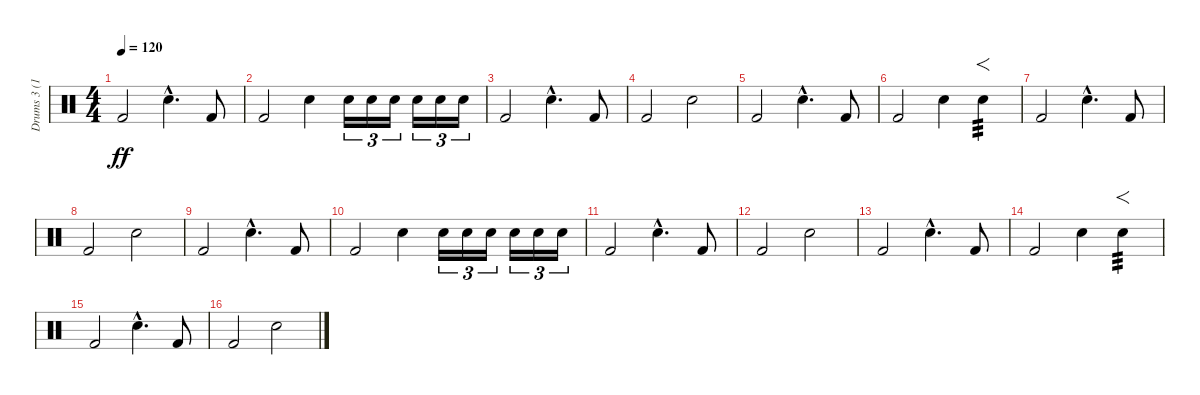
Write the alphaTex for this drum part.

\track ("Drums 3 (16)" "Drums 3 (1") {instrument percussion}
\staff {score}
\articulation defaults
\ts (4 4)
\tempo 120
\clef neutral
\ks c "Kick (hit) 2".2{dy ff} "Snare (hit) 2"{hac}.4{d} "Kick (hit) 2".8
|
"Kick (hit) 2".2 "Snare (hit) 2".4 "Snare (hit) 2".16{tu (3 2)} "Snare (hit) 2".16{tu (3 2)} "Snare (hit) 2".16{tu (3 2)} "Snare (hit) 2".16{tu (3 2)} "Snare (hit) 2".16{tu (3 2)} "Snare (hit) 2".16{tu (3 2)} |
"Kick (hit) 2".2 "Snare (hit) 2"{hac}.4{d} "Kick (hit) 2".8 |
"Kick (hit) 2".2 "Snare (hit) 2".2 |
"Kick (hit) 2".2 "Snare (hit) 2"{hac}.4{d} "Kick (hit) 2".8 |
"Kick (hit) 2".2 "Snare (hit) 2".4 "Snare (hit) 2".4{f tp 3} |
"Kick (hit) 2".2 "Snare (hit) 2"{hac}.4{d} "Kick (hit) 2".8 |
"Kick (hit) 2".2 "Snare (hit) 2".2 |
"Kick (hit) 2".2 "Snare (hit) 2"{hac}.4{d} "Kick (hit) 2".8 |
"Kick (hit) 2".2 "Snare (hit) 2".4 "Snare (hit) 2".16{tu (3 2)} "Snare (hit) 2".16{tu (3 2)} "Snare (hit) 2".16{tu (3 2)} "Snare (hit) 2".16{tu (3 2)} "Snare (hit) 2".16{tu (3 2)} "Snare (hit) 2".16{tu (3 2)} |
"Kick (hit) 2".2 "Snare (hit) 2"{hac}.4{d} "Kick (hit) 2".8 |
"Kick (hit) 2".2 "Snare (hit) 2".2 |
"Kick (hit) 2".2 "Snare (hit) 2"{hac}.4{d} "Kick (hit) 2".8 |
"Kick (hit) 2".2 "Snare (hit) 2".4 "Snare (hit) 2".4{f tp 3} |
"Kick (hit) 2".2 "Snare (hit) 2"{hac}.4{d} "Kick (hit) 2".8 |
"Kick (hit) 2".2 "Snare (hit) 2".2
